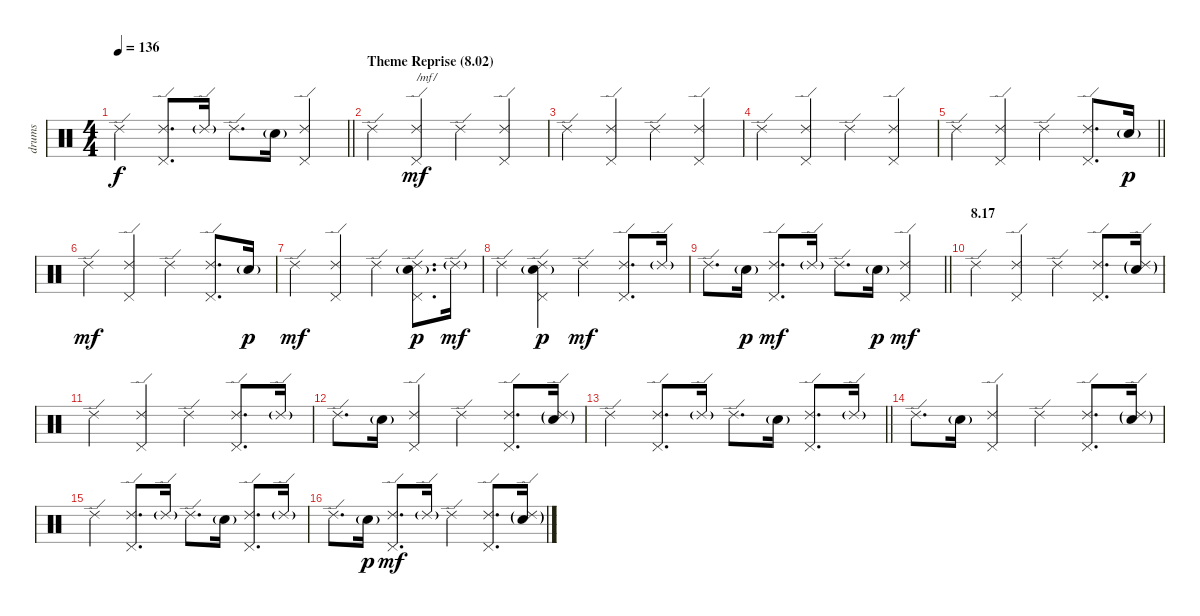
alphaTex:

\track ("drums" "drums") {instrument percussion}
\staff {score}
\articulation defaults
\ts (4 4)
\tempo 136
\clef neutral
\barLineRight lightlight
\ks c "Ride (edge) 2".4{dy f}
("Ride (edge) 2" "Pedal Hi-Hat (hit)").8{d} "Ride (edge) 2"{g}.16 "Ride (edge) 2".8{d} "Electric Snare (hit)"{g}.16 ("Ride (edge) 2" "Pedal Hi-Hat (hit)").4 |
\section ("" "Theme Reprise (8.02)")
"Ride (edge) 2".4 ("Ride (edge) 2" "Pedal Hi-Hat (hit)").4{txt "/mf/" dy mf} "Ride (edge) 2".4 ("Ride (edge) 2" "Pedal Hi-Hat (hit)").4 |
"Ride (edge) 2".4 ("Ride (edge) 2" "Pedal Hi-Hat (hit)").4 "Ride (edge) 2".4 ("Ride (edge) 2" "Pedal Hi-Hat (hit)").4 |
"Ride (edge) 2".4 ("Ride (edge) 2" "Pedal Hi-Hat (hit)").4 "Ride (edge) 2".4 ("Ride (edge) 2" "Pedal Hi-Hat (hit)").4 |
\barLineRight lightlight "Ride (edge) 2".4
("Ride (edge) 2" "Pedal Hi-Hat (hit)").4 "Ride (edge) 2".4 ("Ride (edge) 2" "Pedal Hi-Hat (hit)").8{d} "Electric Snare (hit)"{g}.16{dy p} |
"Ride (edge) 2".4{dy mf} ("Ride (edge) 2" "Pedal Hi-Hat (hit)").4 "Ride (edge) 2".4 ("Ride (edge) 2" "Pedal Hi-Hat (hit)").8{d} "Electric Snare (hit)"{g}.16{dy p} |
"Ride (edge) 2".4{dy mf} ("Ride (edge) 2" "Pedal Hi-Hat (hit)").4 "Ride (edge) 2".4 ("Ride (edge) 2" "Pedal Hi-Hat (hit)" "Electric Snare (hit)"{g}).8{d dy p} "Ride (edge) 2"{g}.16{dy mf} |
"Ride (edge) 2".4 ("Ride (edge) 2" "Pedal Hi-Hat (hit)" "Electric Snare (hit)"{g}).4{dy p} "Ride (edge) 2".4{dy mf} ("Ride (edge) 2" "Pedal Hi-Hat (hit)").8{d} "Ride (edge) 2"{g}.16 |
\barLineRight lightlight "Ride (edge) 2".8{d} "Electric Snare (hit)"{g}.16{dy p}
("Ride (edge) 2" "Pedal Hi-Hat (hit)").8{d dy mf} "Ride (edge) 2"{g}.16 "Ride (edge) 2".8{d} "Electric Snare (hit)"{g}.16{dy p} ("Ride (edge) 2" "Pedal Hi-Hat (hit)").4{dy mf} |
\section ("" "8.17")
"Ride (edge) 2".4 ("Ride (edge) 2" "Pedal Hi-Hat (hit)").4 "Ride (edge) 2".4 ("Ride (edge) 2" "Pedal Hi-Hat (hit)").8{d} ("Ride (edge) 2"{g} "Electric Snare (hit)"{g}).16 |
"Ride (edge) 2".4 ("Ride (edge) 2" "Pedal Hi-Hat (hit)").4 "Ride (edge) 2".4 ("Ride (edge) 2" "Pedal Hi-Hat (hit)").8{d} "Ride (edge) 2"{g}.16 |
"Ride (edge) 2".8{d} "Electric Snare (hit)"{g}.16 ("Ride (edge) 2" "Pedal Hi-Hat (hit)").4 "Ride (edge) 2".4 ("Ride (edge) 2" "Pedal Hi-Hat (hit)").8{d} ("Ride (edge) 2"{g} "Electric Snare (hit)"{g}).16 |
\barLineRight lightlight "Ride (edge) 2".4
("Ride (edge) 2" "Pedal Hi-Hat (hit)").8{d} "Ride (edge) 2"{g}.16 "Ride (edge) 2".8{d} "Electric Snare (hit)"{g}.16 ("Ride (edge) 2" "Pedal Hi-Hat (hit)").8{d} "Ride (edge) 2"{g}.16 |
"Ride (edge) 2".8{d} "Electric Snare (hit)"{g}.16 ("Ride (edge) 2" "Pedal Hi-Hat (hit)").4 "Ride (edge) 2".4 ("Ride (edge) 2" "Pedal Hi-Hat (hit)").8{d} ("Ride (edge) 2"{g} "Electric Snare (hit)"{g}).16 |
"Ride (edge) 2".4 ("Ride (edge) 2" "Pedal Hi-Hat (hit)").8{d} "Ride (edge) 2"{g}.16 "Ride (edge) 2".8{d} "Electric Snare (hit)"{g}.16 ("Ride (edge) 2" "Pedal Hi-Hat (hit)").8{d} "Ride (edge) 2"{g}.16 |
"Ride (edge) 2".8{d} "Electric Snare (hit)"{g}.16{dy p} ("Ride (edge) 2" "Pedal Hi-Hat (hit)").8{d dy mf} "Ride (edge) 2"{g}.16 "Ride (edge) 2".4 ("Ride (edge) 2" "Pedal Hi-Hat (hit)").8{d} ("Ride (edge) 2"{g} "Electric Snare (hit)"{g}).16
